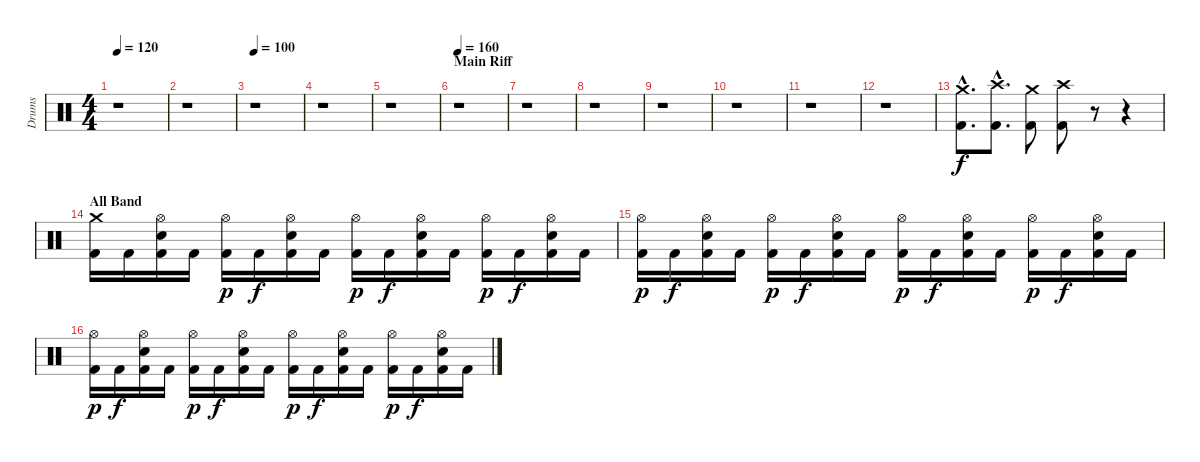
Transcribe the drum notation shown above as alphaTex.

\track ("Drums" "Drums") {instrument percussion}
\staff {score}
\articulation defaults
\ts (4 4)
\tempo 120
\clef neutral
\ks c
r.1{dy f} |
r.1 |
\tempo 100
r.1 |
r.1 |
r.1 |
\section ("" "Main Riff")
\tempo 160
r.1 |
r.1 |
r.1 |
r.1 |
r.1 |
r.1 |
r.1 |
("Crash medium (hit)"{hac} "Kick (hit) 2"{hac}).8{d} ("Crash high (hit)"{hac} "Kick (hit) 2"{hac}).8{d} ("Crash medium (hit)" "Kick (hit) 2").8 ("Crash high (hit)" "Kick (hit) 2").8 r.8 r.4 |
\section ("" "All Band")
("Crash medium (hit)" "Kick (hit) 2").16 "Kick (hit) 2".16 ("Hi-Hat (open)" "Electric Snare (hit)" "Kick (hit) 2").16 "Kick (hit) 2".16 ("Hi-Hat (open)" "Kick (hit) 2").16{dy p} "Kick (hit) 2".16{dy f} ("Hi-Hat (open)" "Electric Snare (hit)" "Kick (hit) 2").16 "Kick (hit) 2".16 ("Hi-Hat (open)" "Kick (hit) 2").16{dy p} "Kick (hit) 2".16{dy f} ("Hi-Hat (open)" "Electric Snare (hit)" "Kick (hit) 2").16 "Kick (hit) 2".16 ("Hi-Hat (open)" "Kick (hit) 2").16{dy p} "Kick (hit) 2".16{dy f} ("Hi-Hat (open)" "Electric Snare (hit)" "Kick (hit) 2").16 "Kick (hit) 2".16 |
("Hi-Hat (open)" "Kick (hit) 2").16{dy p} "Kick (hit) 2".16{dy f} ("Hi-Hat (open)" "Electric Snare (hit)" "Kick (hit) 2").16 "Kick (hit) 2".16 ("Hi-Hat (open)" "Kick (hit) 2").16{dy p} "Kick (hit) 2".16{dy f} ("Hi-Hat (open)" "Electric Snare (hit)" "Kick (hit) 2").16 "Kick (hit) 2".16 ("Hi-Hat (open)" "Kick (hit) 2").16{dy p} "Kick (hit) 2".16{dy f} ("Hi-Hat (open)" "Electric Snare (hit)" "Kick (hit) 2").16 "Kick (hit) 2".16 ("Hi-Hat (open)" "Kick (hit) 2").16{dy p} "Kick (hit) 2".16{dy f} ("Hi-Hat (open)" "Electric Snare (hit)" "Kick (hit) 2").16 "Kick (hit) 2".16 |
("Hi-Hat (open)" "Kick (hit) 2").16{dy p} "Kick (hit) 2".16{dy f} ("Hi-Hat (open)" "Electric Snare (hit)" "Kick (hit) 2").16 "Kick (hit) 2".16 ("Hi-Hat (open)" "Kick (hit) 2").16{dy p} "Kick (hit) 2".16{dy f} ("Hi-Hat (open)" "Electric Snare (hit)" "Kick (hit) 2").16 "Kick (hit) 2".16 ("Hi-Hat (open)" "Kick (hit) 2").16{dy p} "Kick (hit) 2".16{dy f} ("Hi-Hat (open)" "Electric Snare (hit)" "Kick (hit) 2").16 "Kick (hit) 2".16 ("Hi-Hat (open)" "Kick (hit) 2").16{dy p} "Kick (hit) 2".16{dy f} ("Hi-Hat (open)" "Electric Snare (hit)" "Kick (hit) 2").16 "Kick (hit) 2".16
